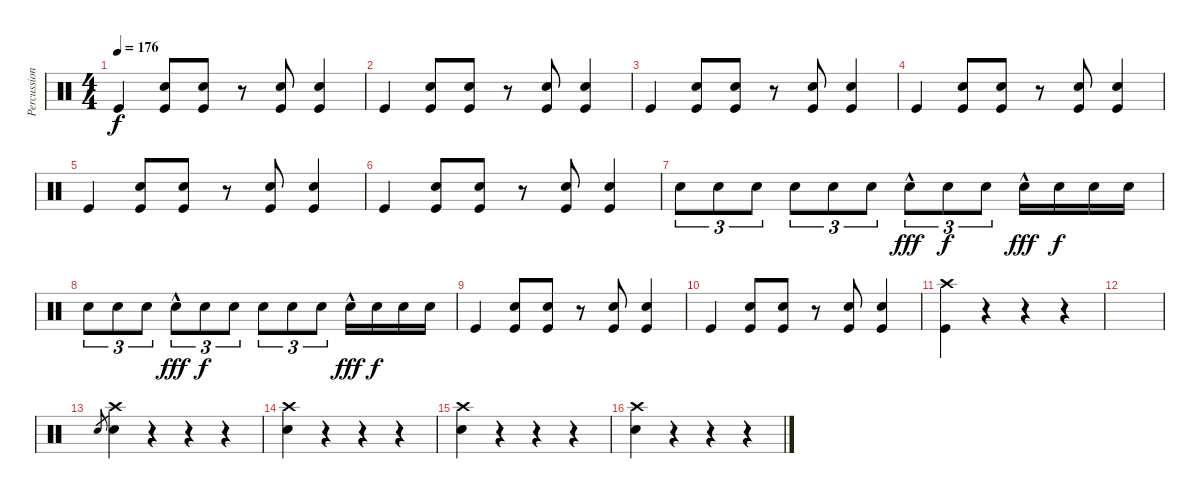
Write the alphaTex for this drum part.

\track ("Percussion" "Percussion") {instrument percussion}
\staff {score}
\articulation defaults
\ts (4 4)
\tempo 176
\clef neutral
\ks c "Kick (hit)".4{dy f}
("Snare (hit) 2" "Kick (hit)").8 ("Snare (hit) 2" "Kick (hit)").8 r.8 ("Snare (hit) 2" "Kick (hit)").8 ("Snare (hit) 2" "Kick (hit)").4 |
"Kick (hit)".4 ("Snare (hit) 2" "Kick (hit)").8 ("Snare (hit) 2" "Kick (hit)").8 r.8 ("Snare (hit) 2" "Kick (hit)").8 ("Snare (hit) 2" "Kick (hit)").4 |
"Kick (hit)".4 ("Snare (hit) 2" "Kick (hit)").8 ("Snare (hit) 2" "Kick (hit)").8 r.8 ("Snare (hit) 2" "Kick (hit)").8 ("Snare (hit) 2" "Kick (hit)").4 |
"Kick (hit)".4 ("Snare (hit) 2" "Kick (hit)").8 ("Snare (hit) 2" "Kick (hit)").8 r.8 ("Snare (hit) 2" "Kick (hit)").8 ("Snare (hit) 2" "Kick (hit)").4 |
"Kick (hit)".4 ("Snare (hit) 2" "Kick (hit)").8 ("Snare (hit) 2" "Kick (hit)").8 r.8 ("Snare (hit) 2" "Kick (hit)").8 ("Snare (hit) 2" "Kick (hit)").4 |
"Kick (hit)".4 ("Snare (hit) 2" "Kick (hit)").8 ("Snare (hit) 2" "Kick (hit)").8 r.8 ("Snare (hit) 2" "Kick (hit)").8 ("Snare (hit) 2" "Kick (hit)").4 |
"Snare (hit) 2".8{tu (3 2)} "Snare (hit) 2".8{tu (3 2)} "Snare (hit) 2".8{tu (3 2)} "Snare (hit) 2".8{tu (3 2)} "Snare (hit) 2".8{tu (3 2)} "Snare (hit) 2".8{tu (3 2)} "Snare (hit) 2"{hac}.8{tu (3 2) dy fff} "Snare (hit) 2".8{tu (3 2) dy f} "Snare (hit) 2".8{tu (3 2)} "Snare (hit) 2"{hac}.16{dy fff} "Snare (hit) 2".16{dy f} "Snare (hit) 2".16 "Snare (hit) 2".16 |
"Snare (hit) 2".8{tu (3 2)} "Snare (hit) 2".8{tu (3 2)} "Snare (hit) 2".8{tu (3 2)} "Snare (hit) 2"{hac}.8{tu (3 2) dy fff} "Snare (hit) 2".8{tu (3 2) dy f} "Snare (hit) 2".8{tu (3 2)} "Snare (hit) 2".8{tu (3 2)} "Snare (hit) 2".8{tu (3 2)} "Snare (hit) 2".8{tu (3 2)} "Snare (hit) 2"{hac}.16{dy fff} "Snare (hit) 2".16{dy f} "Snare (hit) 2".16 "Snare (hit) 2".16 |
"Kick (hit)".4 ("Snare (hit) 2" "Kick (hit)").8 ("Snare (hit) 2" "Kick (hit)").8 r.8 ("Snare (hit) 2" "Kick (hit)").8 ("Snare (hit) 2" "Kick (hit)").4 |
"Kick (hit)".4 ("Snare (hit) 2" "Kick (hit)").8 ("Snare (hit) 2" "Kick (hit)").8 r.8 ("Snare (hit) 2" "Kick (hit)").8 ("Snare (hit) 2" "Kick (hit)").4 |
("Crash high (hit)" "Kick (hit)").4 r.4 r.4 r.4 |
|
"Snare (hit) 2".8{gr} ("Crash high (hit)" "Snare (hit) 2").4 r.4 r.4 r.4 |
("Crash high (hit)" "Snare (hit) 2").4 r.4 r.4 r.4 |
("Crash high (hit)" "Snare (hit) 2").4 r.4 r.4 r.4 |
("Crash high (hit)" "Snare (hit) 2").4 r.4 r.4 r.4
